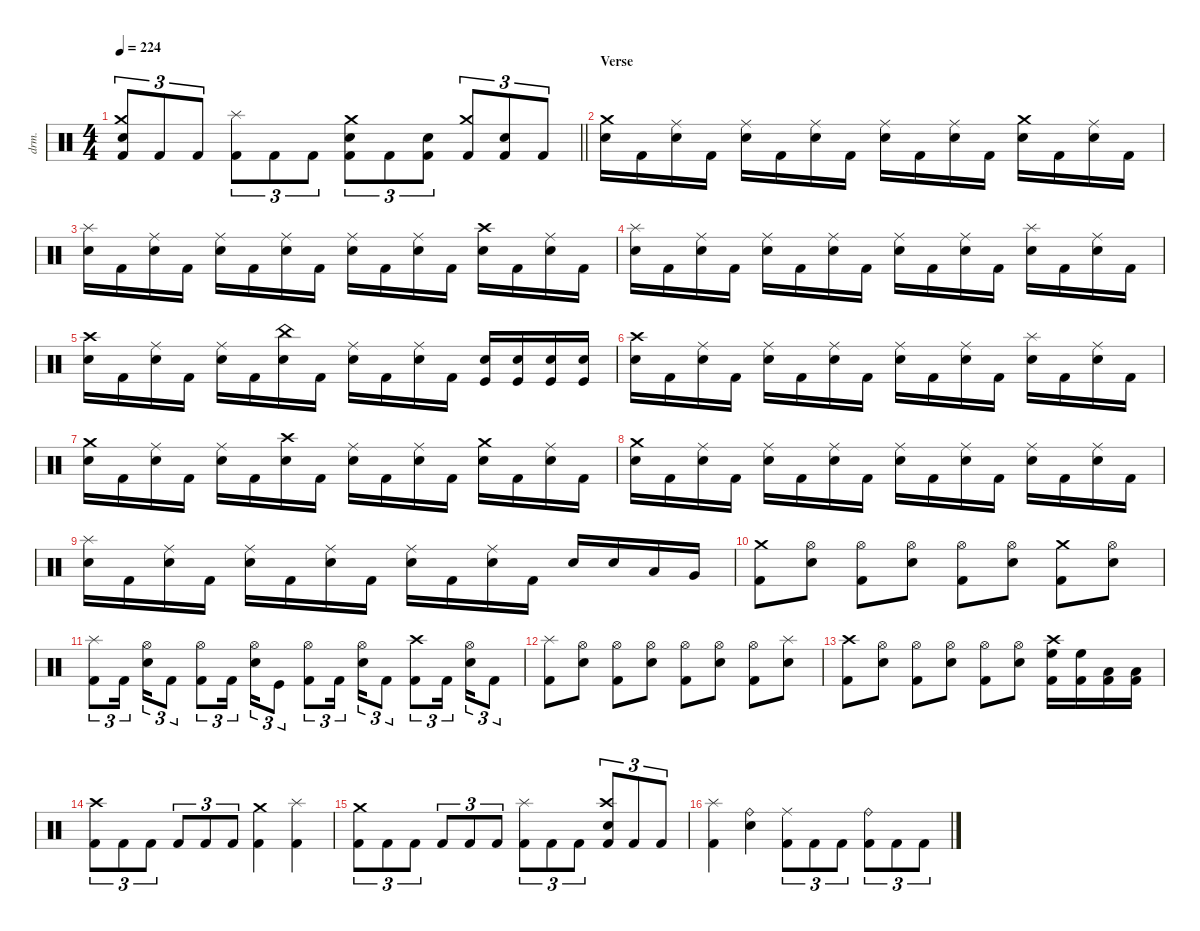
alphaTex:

\defaultSystemsLayout 4
\hideDynamics
\bracketExtendMode nobrackets
\otherSystemsTrackNameOrientation horizontal
\track ("Percussion" "drm.") {instrument percussion}
\staff {score}
\articulation defaults
\ts (4 4)
\tempo 224
\clef neutral
\barLineRight lightlight
\ks c
("Crash medium (hit)" "Snare (hit) 2" "Kick (hit) 2").8{tu (3 2) dy f beam Up} "Kick (hit) 2".8{tu (3 2) beam Up} "Kick (hit) 2".8{tu (3 2) beam Up} ("Splash (hit)" "Kick (hit) 2").8{tu (3 2) beam Down} "Kick (hit) 2".8{tu (3 2) beam Down} "Kick (hit) 2".8{tu (3 2) beam Down} ("Crash medium (hit)" "Snare (hit) 2" "Kick (hit) 2").8{tu (3 2) beam Down} "Kick (hit) 2".8{tu (3 2) beam Down} ("Snare (hit) 2" "Kick (hit) 2").8{tu (3 2) beam Down} ("Crash medium (hit)" "Kick (hit) 2").8{tu (3 2) beam Up} ("Snare (hit) 2" "Kick (hit) 2").8{tu (3 2) beam Up} "Kick (hit) 2".8{tu (3 2) beam Up} |
\section ("" "Verse")
("Crash medium (hit)" "Snare (hit) 2").16{beam Down} "Kick (hit) 2".16{beam Down} ("Ride (middle)" "Snare (hit) 2").16{beam Down} "Kick (hit) 2".16{beam Down} ("Ride (middle)" "Snare (hit) 2").16{beam Down} "Kick (hit) 2".16{beam Down} ("Ride (middle)" "Snare (hit) 2").16{beam Down} "Kick (hit) 2".16{beam Down} ("Ride (middle)" "Snare (hit) 2").16{beam Down} "Kick (hit) 2".16{beam Down} ("Ride (middle)" "Snare (hit) 2").16{beam Down} "Kick (hit) 2".16{beam Down} ("Crash medium (hit)" "Snare (hit) 2").16{beam Down} "Kick (hit) 2".16{beam Down} ("Ride (middle)" "Snare (hit) 2").16{beam Down} "Kick (hit) 2".16{beam Down} |
("Splash (hit)" "Snare (hit) 2").16{beam Down} "Kick (hit) 2".16{beam Down} ("Ride (middle)" "Snare (hit) 2").16{beam Down} "Kick (hit) 2".16{beam Down} ("Ride (middle)" "Snare (hit) 2").16{beam Down} "Kick (hit) 2".16{beam Down} ("Ride (middle)" "Snare (hit) 2").16{beam Down} "Kick (hit) 2".16{beam Down} ("Ride (middle)" "Snare (hit) 2").16{beam Down} "Kick (hit) 2".16{beam Down} ("Ride (middle)" "Snare (hit) 2").16{beam Down} "Kick (hit) 2".16{beam Down} ("Crash high (hit)" "Snare (hit) 2").16{beam Down} "Kick (hit) 2".16{beam Down} ("Ride (middle)" "Snare (hit) 2").16{beam Down} "Kick (hit) 2".16{beam Down} |
("Splash (hit)" "Snare (hit) 2").16{beam Down} "Kick (hit) 2".16{beam Down} ("Ride (middle)" "Snare (hit) 2").16{beam Down} "Kick (hit) 2".16{beam Down} ("Ride (middle)" "Snare (hit) 2").16{beam Down} "Kick (hit) 2".16{beam Down} ("Ride (middle)" "Snare (hit) 2").16{beam Down} "Kick (hit) 2".16{beam Down} ("Ride (middle)" "Snare (hit) 2").16{beam Down} "Kick (hit) 2".16{beam Down} ("Ride (middle)" "Snare (hit) 2").16{beam Down} "Kick (hit) 2".16{beam Down} ("Splash (hit)" "Snare (hit) 2").16{beam Down} "Kick (hit) 2".16{beam Down} ("Ride (middle)" "Snare (hit) 2").16{beam Down} "Kick (hit) 2".16{beam Down} |
("Crash high (hit)" "Snare (hit) 2").16{beam Down} "Kick (hit) 2".16{beam Down} ("Ride (middle)" "Snare (hit) 2").16{beam Down} "Kick (hit) 2".16{beam Down} ("Ride (middle)" "Snare (hit) 2").16{beam Down} "Kick (hit) 2".16{beam Down} ("China (hit)" "Snare (hit) 2").16{beam Down} "Kick (hit) 2".16{beam Down} ("Ride (middle)" "Snare (hit) 2").16{beam Down} "Kick (hit) 2".16{beam Down} ("Ride (middle)" "Snare (hit) 2").16{beam Down} "Kick (hit) 2".16{beam Down} ("Snare (hit) 2" "Kick (hit)").16{beam Up} ("Snare (hit) 2" "Kick (hit)").16{beam Up} ("Snare (hit) 2" "Kick (hit)").16{beam Up} ("Snare (hit) 2" "Kick (hit)").16{beam Up} |
("Crash high (hit)" "Snare (hit) 2").16{beam Down} "Kick (hit) 2".16{beam Down} ("Ride (middle)" "Snare (hit) 2").16{beam Down} "Kick (hit) 2".16{beam Down} ("Ride (middle)" "Snare (hit) 2").16{beam Down} "Kick (hit) 2".16{beam Down} ("Ride (middle)" "Snare (hit) 2").16{beam Down} "Kick (hit) 2".16{beam Down} ("Ride (middle)" "Snare (hit) 2").16{beam Down} "Kick (hit) 2".16{beam Down} ("Ride (middle)" "Snare (hit) 2").16{beam Down} "Kick (hit) 2".16{beam Down} ("Splash (hit)" "Snare (hit) 2").16{beam Down} "Kick (hit) 2".16{beam Down} ("Ride (middle)" "Snare (hit) 2").16{beam Down} "Kick (hit) 2".16{beam Down} |
("Crash medium (hit)" "Snare (hit) 2").16{beam Down} "Kick (hit) 2".16{beam Down} ("Ride (middle)" "Snare (hit) 2").16{beam Down} "Kick (hit) 2".16{beam Down} ("Ride (middle)" "Snare (hit) 2").16{beam Down} "Kick (hit) 2".16{beam Down} ("Crash high (hit)" "Snare (hit) 2").16{beam Down} "Kick (hit) 2".16{beam Down} ("Ride (middle)" "Snare (hit) 2").16{beam Down} "Kick (hit) 2".16{beam Down} ("Ride (middle)" "Snare (hit) 2").16{beam Down} "Kick (hit) 2".16{beam Down} ("Crash medium (hit)" "Snare (hit) 2").16{beam Down} "Kick (hit) 2".16{beam Down} ("Ride (middle)" "Snare (hit) 2").16{beam Down} "Kick (hit) 2".16{beam Down} |
("Crash medium (hit)" "Snare (hit) 2").16{beam Down} "Kick (hit) 2".16{beam Down} ("Ride (middle)" "Snare (hit) 2").16{beam Down} "Kick (hit) 2".16{beam Down} ("Ride (middle)" "Snare (hit) 2").16{beam Down} "Kick (hit) 2".16{beam Down} ("Ride (middle)" "Snare (hit) 2").16{beam Down} "Kick (hit) 2".16{beam Down} ("Ride (middle)" "Snare (hit) 2").16{beam Down} "Kick (hit) 2".16{beam Down} ("Ride (middle)" "Snare (hit) 2").16{beam Down} "Kick (hit) 2".16{beam Down} ("Ride (middle)" "Snare (hit) 2").16{beam Down} "Kick (hit) 2".16{beam Down} ("Ride (middle)" "Snare (hit) 2").16{beam Down} "Kick (hit) 2".16{beam Down} |
("Splash (hit)" "Snare (hit) 2").16{beam Down} "Kick (hit) 2".16{beam Down} ("Ride (middle)" "Snare (hit) 2").16{beam Down} "Kick (hit) 2".16{beam Down} ("Ride (middle)" "Snare (hit) 2").16{beam Down} "Kick (hit) 2".16{beam Down} ("Ride (middle)" "Snare (hit) 2").16{beam Down} "Kick (hit) 2".16{beam Down} ("Ride (middle)" "Snare (hit) 2").16{beam Down} "Kick (hit) 2".16{beam Down} ("Ride (middle)" "Snare (hit) 2").16{beam Down} "Kick (hit) 2".16{beam Down} "Snare (hit) 2".16{beam Up} "Snare (hit) 2".16{beam Up} "Low Tom (hit)".16{beam Up} "Very Low Tom (hit)".16{beam Up} |
("Crash medium (hit)" "Kick (hit) 2").8{beam Down} ("Hi-Hat (open)" "Snare (hit) 2").8{beam Down} ("Hi-Hat (open)" "Kick (hit) 2").8{beam Down} ("Hi-Hat (open)" "Snare (hit) 2").8{beam Down} ("Hi-Hat (open)" "Kick (hit) 2").8{beam Down} ("Hi-Hat (open)" "Snare (hit) 2").8{beam Down} ("Crash medium (hit)" "Kick (hit) 2").8{beam Down} ("Hi-Hat (open)" "Snare (hit) 2").8{beam Down} |
("Splash (hit)" "Kick (hit) 2").8{tu (3 2) beam Down} "Kick (hit) 2".16{tu (3 2) beam Down} ("Hi-Hat (open)" "Snare (hit) 2").16{tu (3 2) beam Down} "Kick (hit) 2".8{tu (3 2) beam Down} ("Hi-Hat (open)" "Kick (hit) 2").8{tu (3 2) beam Down} "Kick (hit) 2".16{tu (3 2) beam Down} ("Hi-Hat (open)" "Snare (hit) 2").16{tu (3 2) beam Down} "Kick (hit)".8{tu (3 2) beam Down} ("Hi-Hat (open)" "Kick (hit) 2").8{tu (3 2) beam Down} "Kick (hit) 2".16{tu (3 2) beam Down} ("Hi-Hat (open)" "Snare (hit) 2").16{tu (3 2) beam Down} "Kick (hit) 2".8{tu (3 2) beam Down} ("Crash high (hit)" "Kick (hit) 2").8{tu (3 2) beam Down} "Kick (hit) 2".16{tu (3 2) beam Down} ("Hi-Hat (open)" "Snare (hit) 2").16{tu (3 2) beam Down} "Kick (hit) 2".8{tu (3 2) beam Down} |
("Splash (hit)" "Kick (hit) 2").8{beam Down} ("Hi-Hat (open)" "Snare (hit) 2").8{beam Down} ("Hi-Hat (open)" "Kick (hit) 2").8{beam Down} ("Hi-Hat (open)" "Snare (hit) 2").8{beam Down} ("Hi-Hat (open)" "Kick (hit) 2").8{beam Down} ("Hi-Hat (open)" "Snare (hit) 2").8{beam Down} ("Hi-Hat (open)" "Kick (hit) 2").8{beam Down} ("Splash (hit)" "Snare (hit) 2").8{beam Down} |
("Crash high (hit)" "Kick (hit) 2").8{beam Down} ("Hi-Hat (open)" "Snare (hit) 2").8{beam Down} ("Hi-Hat (open)" "Kick (hit) 2").8{beam Down} ("Hi-Hat (open)" "Snare (hit) 2").8{beam Down} ("Hi-Hat (open)" "Kick (hit) 2").8{beam Down} ("Hi-Hat (open)" "Snare (hit) 2").8{beam Down} ("Crash high (hit)" "High Floor Tom (hit)" "Kick (hit) 2").16{beam Down} ("High Floor Tom (hit)" "Kick (hit) 2").16{beam Down} ("Low Tom (hit)" "Kick (hit) 2").16{beam Down} ("Low Tom (hit)" "Kick (hit) 2").16{beam Down} |
("Crash high (hit)" "Kick (hit) 2").8{tu (3 2) beam Down} "Kick (hit) 2".8{tu (3 2) beam Down} "Kick (hit) 2".8{tu (3 2) beam Down} "Kick (hit) 2".8{tu (3 2) beam Up} "Kick (hit) 2".8{tu (3 2) beam Up} "Kick (hit) 2".8{tu (3 2) beam Up} ("Crash medium (hit)" "Kick (hit) 2").4{beam Down} ("Splash (hit)" "Kick (hit) 2").4{beam Down} |
("Crash medium (hit)" "Kick (hit) 2").8{tu (3 2) beam Down} "Kick (hit) 2".8{tu (3 2) beam Down} "Kick (hit) 2".8{tu (3 2) beam Down} "Kick (hit) 2".8{tu (3 2) beam Up} "Kick (hit) 2".8{tu (3 2) beam Up} "Kick (hit) 2".8{tu (3 2) beam Up} ("Splash (hit)" "Kick (hit) 2").8{tu (3 2) beam Down} "Kick (hit) 2".8{tu (3 2) beam Down} "Kick (hit) 2".8{tu (3 2) beam Down} ("Crash high (hit)" "Snare (hit) 2" "Kick (hit) 2").8{tu (3 2) beam Up} "Kick (hit) 2".8{tu (3 2) beam Up} "Kick (hit) 2".8{tu (3 2) beam Up} |
("Splash (hit)" "Kick (hit) 2").4{beam Down} ("Ride (bell)" "Snare (hit) 2").4{beam Down} ("Ride (middle)" "Kick (hit) 2").8{tu (3 2) beam Down} "Kick (hit) 2".8{tu (3 2) beam Down} "Kick (hit) 2".8{tu (3 2) beam Down} ("Ride (bell)" "Kick (hit) 2").8{tu (3 2) beam Down} "Kick (hit) 2".8{tu (3 2) beam Down} "Kick (hit) 2".8{tu (3 2) beam Down}
